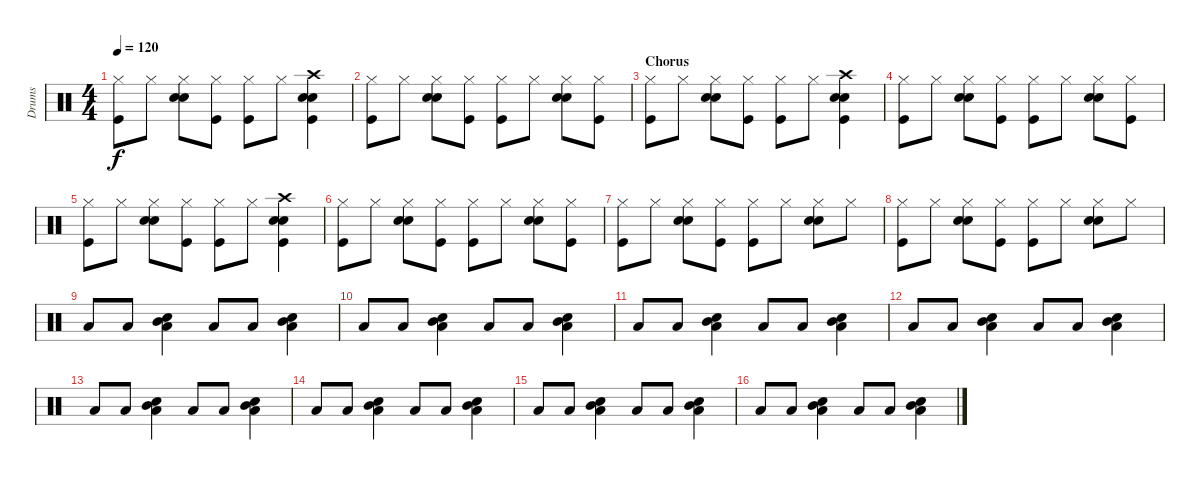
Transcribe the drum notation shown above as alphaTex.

\track ("Drums" "Drums") {instrument percussion}
\staff {score}
\articulation defaults
\ts (4 4)
\tempo 120
\clef neutral
\ks c
("Hi-Hat (closed)" "Kick (hit)").8{dy f} "Hi-Hat (closed)".8 ("Hi-Hat (closed)" "Snare (hit) 2" "Hand Clap (hit)").8 ("Hi-Hat (closed)" "Kick (hit)").8 ("Hi-Hat (closed)" "Kick (hit)").8 "Hi-Hat (closed)".8 ("Crash high (hit)" "Snare (hit) 2" "Hand Clap (hit)" "Kick (hit)").4 |
("Hi-Hat (closed)" "Kick (hit)").8 "Hi-Hat (closed)".8 ("Hi-Hat (closed)" "Snare (hit) 2" "Hand Clap (hit)").8 ("Hi-Hat (closed)" "Kick (hit)").8 ("Hi-Hat (closed)" "Kick (hit)").8 "Hi-Hat (closed)".8 ("Hi-Hat (closed)" "Snare (hit) 2" "Hand Clap (hit)").8 ("Hi-Hat (closed)" "Kick (hit)").8 |
\section ("" "Chorus")
("Hi-Hat (closed)" "Kick (hit)").8 "Hi-Hat (closed)".8 ("Hi-Hat (closed)" "Snare (hit) 2" "Hand Clap (hit)").8 ("Hi-Hat (closed)" "Kick (hit)").8 ("Hi-Hat (closed)" "Kick (hit)").8 "Hi-Hat (closed)".8 ("Crash high (hit)" "Snare (hit) 2" "Hand Clap (hit)" "Kick (hit)").4 |
("Hi-Hat (closed)" "Kick (hit)").8 "Hi-Hat (closed)".8 ("Hi-Hat (closed)" "Snare (hit) 2" "Hand Clap (hit)").8 ("Hi-Hat (closed)" "Kick (hit)").8 ("Hi-Hat (closed)" "Kick (hit)").8 "Hi-Hat (closed)".8 ("Hi-Hat (closed)" "Snare (hit) 2" "Hand Clap (hit)").8 ("Hi-Hat (closed)" "Kick (hit)").8 |
("Hi-Hat (closed)" "Kick (hit)").8 "Hi-Hat (closed)".8 ("Hi-Hat (closed)" "Snare (hit) 2" "Hand Clap (hit)").8 ("Hi-Hat (closed)" "Kick (hit)").8 ("Hi-Hat (closed)" "Kick (hit)").8 "Hi-Hat (closed)".8 ("Crash high (hit)" "Snare (hit) 2" "Hand Clap (hit)" "Kick (hit)").4 |
("Hi-Hat (closed)" "Kick (hit)").8 "Hi-Hat (closed)".8 ("Hi-Hat (closed)" "Snare (hit) 2" "Hand Clap (hit)").8 ("Hi-Hat (closed)" "Kick (hit)").8 ("Hi-Hat (closed)" "Kick (hit)").8 "Hi-Hat (closed)".8 ("Hi-Hat (closed)" "Snare (hit) 2" "Hand Clap (hit)").8 ("Hi-Hat (closed)" "Kick (hit)").8 |
("Hi-Hat (closed)" "Kick (hit)").8 "Hi-Hat (closed)".8 ("Hi-Hat (closed)" "Snare (hit) 2" "Hand Clap (hit)").8 ("Hi-Hat (closed)" "Kick (hit)").8 ("Hi-Hat (closed)" "Kick (hit)").8 "Hi-Hat (closed)".8 ("Hi-Hat (closed)" "Snare (hit) 2" "Hand Clap (hit)").8 "Hi-Hat (closed)".8 |
("Hi-Hat (closed)" "Kick (hit)").8 "Hi-Hat (closed)".8 ("Hi-Hat (closed)" "Snare (hit) 2" "Hand Clap (hit)").8 ("Hi-Hat (closed)" "Kick (hit)").8 ("Hi-Hat (closed)" "Kick (hit)").8 "Hi-Hat (closed)".8 ("Hi-Hat (closed)" "Snare (hit) 2" "Hand Clap (hit)").8 "Hi-Hat (closed)".8 |
"Low Tom (hit)".8 "Low Tom (hit)".8 ("Hand Clap (hit)" "Mid Tom (hit)" "Low Tom (hit)").4 "Low Tom (hit)".8 "Low Tom (hit)".8 ("Hand Clap (hit)" "Mid Tom (hit)" "Low Tom (hit)").4 |
"Low Tom (hit)".8 "Low Tom (hit)".8 ("Hand Clap (hit)" "Mid Tom (hit)" "Low Tom (hit)").4 "Low Tom (hit)".8 "Low Tom (hit)".8 ("Hand Clap (hit)" "Mid Tom (hit)" "Low Tom (hit)").4 |
"Low Tom (hit)".8 "Low Tom (hit)".8 ("Hand Clap (hit)" "Mid Tom (hit)" "Low Tom (hit)").4 "Low Tom (hit)".8 "Low Tom (hit)".8 ("Hand Clap (hit)" "Mid Tom (hit)" "Low Tom (hit)").4 |
"Low Tom (hit)".8 "Low Tom (hit)".8 ("Hand Clap (hit)" "Mid Tom (hit)" "Low Tom (hit)").4 "Low Tom (hit)".8 "Low Tom (hit)".8 ("Hand Clap (hit)" "Mid Tom (hit)" "Low Tom (hit)").4 |
"Low Tom (hit)".8 "Low Tom (hit)".8 ("Hand Clap (hit)" "Mid Tom (hit)" "Low Tom (hit)").4 "Low Tom (hit)".8 "Low Tom (hit)".8 ("Hand Clap (hit)" "Mid Tom (hit)" "Low Tom (hit)").4 |
"Low Tom (hit)".8 "Low Tom (hit)".8 ("Hand Clap (hit)" "Mid Tom (hit)" "Low Tom (hit)").4 "Low Tom (hit)".8 "Low Tom (hit)".8 ("Hand Clap (hit)" "Mid Tom (hit)" "Low Tom (hit)").4 |
"Low Tom (hit)".8 "Low Tom (hit)".8 ("Hand Clap (hit)" "Mid Tom (hit)" "Low Tom (hit)").4 "Low Tom (hit)".8 "Low Tom (hit)".8 ("Hand Clap (hit)" "Mid Tom (hit)" "Low Tom (hit)").4 |
"Low Tom (hit)".8 "Low Tom (hit)".8 ("Hand Clap (hit)" "Mid Tom (hit)" "Low Tom (hit)").4 "Low Tom (hit)".8 "Low Tom (hit)".8 ("Hand Clap (hit)" "Mid Tom (hit)" "Low Tom (hit)").4
